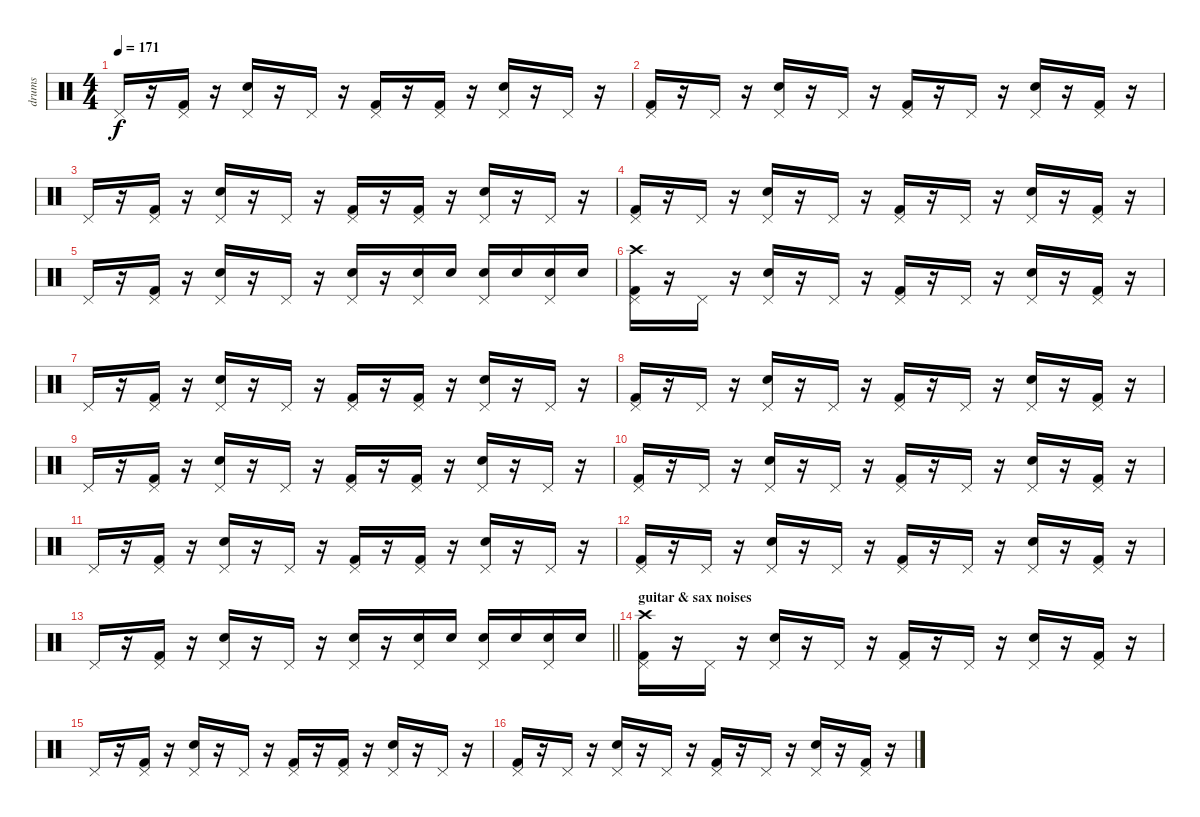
\track ("drums" "drums") {instrument percussion}
\staff {score}
\articulation defaults
\ts (4 4)
\tempo 171
\clef neutral
\ks c "Pedal Hi-Hat (hit)".16{dy f}
r.16 ("Pedal Hi-Hat (hit)" "Kick (hit) 2").16 r.16 ("Pedal Hi-Hat (hit)" "Electric Snare (hit)").16 r.16 "Pedal Hi-Hat (hit)".16 r.16 ("Pedal Hi-Hat (hit)" "Kick (hit) 2").16 r.16 ("Pedal Hi-Hat (hit)" "Kick (hit) 2").16 r.16 ("Pedal Hi-Hat (hit)" "Electric Snare (hit)").16 r.16 "Pedal Hi-Hat (hit)".16 r.16 |
("Pedal Hi-Hat (hit)" "Kick (hit) 2").16 r.16 "Pedal Hi-Hat (hit)".16 r.16 ("Pedal Hi-Hat (hit)" "Electric Snare (hit)").16 r.16 "Pedal Hi-Hat (hit)".16 r.16 ("Pedal Hi-Hat (hit)" "Kick (hit) 2").16 r.16 "Pedal Hi-Hat (hit)".16 r.16 ("Pedal Hi-Hat (hit)" "Electric Snare (hit)").16 r.16 ("Pedal Hi-Hat (hit)" "Kick (hit) 2").16 r.16 |
"Pedal Hi-Hat (hit)".16 r.16 ("Pedal Hi-Hat (hit)" "Kick (hit) 2").16 r.16 ("Pedal Hi-Hat (hit)" "Electric Snare (hit)").16 r.16 "Pedal Hi-Hat (hit)".16 r.16 ("Pedal Hi-Hat (hit)" "Kick (hit) 2").16 r.16 ("Pedal Hi-Hat (hit)" "Kick (hit) 2").16 r.16 ("Pedal Hi-Hat (hit)" "Electric Snare (hit)").16 r.16 "Pedal Hi-Hat (hit)".16 r.16 |
("Pedal Hi-Hat (hit)" "Kick (hit) 2").16 r.16 "Pedal Hi-Hat (hit)".16 r.16 ("Pedal Hi-Hat (hit)" "Electric Snare (hit)").16 r.16 "Pedal Hi-Hat (hit)".16 r.16 ("Pedal Hi-Hat (hit)" "Kick (hit) 2").16 r.16 "Pedal Hi-Hat (hit)".16 r.16 ("Pedal Hi-Hat (hit)" "Electric Snare (hit)").16 r.16 ("Pedal Hi-Hat (hit)" "Kick (hit) 2").16 r.16 |
"Pedal Hi-Hat (hit)".16 r.16 ("Pedal Hi-Hat (hit)" "Kick (hit) 2").16 r.16 ("Pedal Hi-Hat (hit)" "Electric Snare (hit)").16 r.16 "Pedal Hi-Hat (hit)".16 r.16 ("Pedal Hi-Hat (hit)" "Electric Snare (hit)").16 r.16 ("Pedal Hi-Hat (hit)" "Electric Snare (hit)").16 "Electric Snare (hit)".16 ("Pedal Hi-Hat (hit)" "Electric Snare (hit)").16 "Electric Snare (hit)".16 ("Pedal Hi-Hat (hit)" "Electric Snare (hit)").16 "Electric Snare (hit)".16 |
("Pedal Hi-Hat (hit)" "Crash high (hit)" "Kick (hit) 2").16 r.16 "Pedal Hi-Hat (hit)".16 r.16 ("Pedal Hi-Hat (hit)" "Electric Snare (hit)").16 r.16 "Pedal Hi-Hat (hit)".16 r.16 ("Pedal Hi-Hat (hit)" "Kick (hit) 2").16 r.16 "Pedal Hi-Hat (hit)".16 r.16 ("Pedal Hi-Hat (hit)" "Electric Snare (hit)").16 r.16 ("Pedal Hi-Hat (hit)" "Kick (hit) 2").16 r.16 |
"Pedal Hi-Hat (hit)".16 r.16 ("Pedal Hi-Hat (hit)" "Kick (hit) 2").16 r.16 ("Pedal Hi-Hat (hit)" "Electric Snare (hit)").16 r.16 "Pedal Hi-Hat (hit)".16 r.16 ("Pedal Hi-Hat (hit)" "Kick (hit) 2").16 r.16 ("Pedal Hi-Hat (hit)" "Kick (hit) 2").16 r.16 ("Pedal Hi-Hat (hit)" "Electric Snare (hit)").16 r.16 "Pedal Hi-Hat (hit)".16 r.16 |
("Pedal Hi-Hat (hit)" "Kick (hit) 2").16 r.16 "Pedal Hi-Hat (hit)".16 r.16 ("Pedal Hi-Hat (hit)" "Electric Snare (hit)").16 r.16 "Pedal Hi-Hat (hit)".16 r.16 ("Pedal Hi-Hat (hit)" "Kick (hit) 2").16 r.16 "Pedal Hi-Hat (hit)".16 r.16 ("Pedal Hi-Hat (hit)" "Electric Snare (hit)").16 r.16 ("Pedal Hi-Hat (hit)" "Kick (hit) 2").16 r.16 |
"Pedal Hi-Hat (hit)".16 r.16 ("Pedal Hi-Hat (hit)" "Kick (hit) 2").16 r.16 ("Pedal Hi-Hat (hit)" "Electric Snare (hit)").16 r.16 "Pedal Hi-Hat (hit)".16 r.16 ("Pedal Hi-Hat (hit)" "Kick (hit) 2").16 r.16 ("Pedal Hi-Hat (hit)" "Kick (hit) 2").16 r.16 ("Pedal Hi-Hat (hit)" "Electric Snare (hit)").16 r.16 "Pedal Hi-Hat (hit)".16 r.16 |
("Pedal Hi-Hat (hit)" "Kick (hit) 2").16 r.16 "Pedal Hi-Hat (hit)".16 r.16 ("Pedal Hi-Hat (hit)" "Electric Snare (hit)").16 r.16 "Pedal Hi-Hat (hit)".16 r.16 ("Pedal Hi-Hat (hit)" "Kick (hit) 2").16 r.16 "Pedal Hi-Hat (hit)".16 r.16 ("Pedal Hi-Hat (hit)" "Electric Snare (hit)").16 r.16 ("Pedal Hi-Hat (hit)" "Kick (hit) 2").16 r.16 |
"Pedal Hi-Hat (hit)".16 r.16 ("Pedal Hi-Hat (hit)" "Kick (hit) 2").16 r.16 ("Pedal Hi-Hat (hit)" "Electric Snare (hit)").16 r.16 "Pedal Hi-Hat (hit)".16 r.16 ("Pedal Hi-Hat (hit)" "Kick (hit) 2").16 r.16 ("Pedal Hi-Hat (hit)" "Kick (hit) 2").16 r.16 ("Pedal Hi-Hat (hit)" "Electric Snare (hit)").16 r.16 "Pedal Hi-Hat (hit)".16 r.16 |
("Pedal Hi-Hat (hit)" "Kick (hit) 2").16 r.16 "Pedal Hi-Hat (hit)".16 r.16 ("Pedal Hi-Hat (hit)" "Electric Snare (hit)").16 r.16 "Pedal Hi-Hat (hit)".16 r.16 ("Pedal Hi-Hat (hit)" "Kick (hit) 2").16 r.16 "Pedal Hi-Hat (hit)".16 r.16 ("Pedal Hi-Hat (hit)" "Electric Snare (hit)").16 r.16 ("Pedal Hi-Hat (hit)" "Kick (hit) 2").16 r.16 |
\barLineRight lightlight "Pedal Hi-Hat (hit)".16
r.16 ("Pedal Hi-Hat (hit)" "Kick (hit) 2").16 r.16 ("Pedal Hi-Hat (hit)" "Electric Snare (hit)").16 r.16 "Pedal Hi-Hat (hit)".16 r.16 ("Pedal Hi-Hat (hit)" "Electric Snare (hit)").16 r.16 ("Pedal Hi-Hat (hit)" "Electric Snare (hit)").16 "Electric Snare (hit)".16 ("Pedal Hi-Hat (hit)" "Electric Snare (hit)").16 "Electric Snare (hit)".16 ("Pedal Hi-Hat (hit)" "Electric Snare (hit)").16 "Electric Snare (hit)".16 |
\section ("" "guitar & sax noises")
("Pedal Hi-Hat (hit)" "Crash high (hit)" "Kick (hit) 2").16 r.16 "Pedal Hi-Hat (hit)".16 r.16 ("Pedal Hi-Hat (hit)" "Electric Snare (hit)").16 r.16 "Pedal Hi-Hat (hit)".16 r.16 ("Pedal Hi-Hat (hit)" "Kick (hit) 2").16 r.16 "Pedal Hi-Hat (hit)".16 r.16 ("Pedal Hi-Hat (hit)" "Electric Snare (hit)").16 r.16 ("Pedal Hi-Hat (hit)" "Kick (hit) 2").16 r.16 |
"Pedal Hi-Hat (hit)".16 r.16 ("Pedal Hi-Hat (hit)" "Kick (hit) 2").16 r.16 ("Pedal Hi-Hat (hit)" "Electric Snare (hit)").16 r.16 "Pedal Hi-Hat (hit)".16 r.16 ("Pedal Hi-Hat (hit)" "Kick (hit) 2").16 r.16 ("Pedal Hi-Hat (hit)" "Kick (hit) 2").16 r.16 ("Pedal Hi-Hat (hit)" "Electric Snare (hit)").16 r.16 "Pedal Hi-Hat (hit)".16 r.16 |
("Pedal Hi-Hat (hit)" "Kick (hit) 2").16 r.16 "Pedal Hi-Hat (hit)".16 r.16 ("Pedal Hi-Hat (hit)" "Electric Snare (hit)").16 r.16 "Pedal Hi-Hat (hit)".16 r.16 ("Pedal Hi-Hat (hit)" "Kick (hit) 2").16 r.16 "Pedal Hi-Hat (hit)".16 r.16 ("Pedal Hi-Hat (hit)" "Electric Snare (hit)").16 r.16 ("Pedal Hi-Hat (hit)" "Kick (hit) 2").16 r.16
